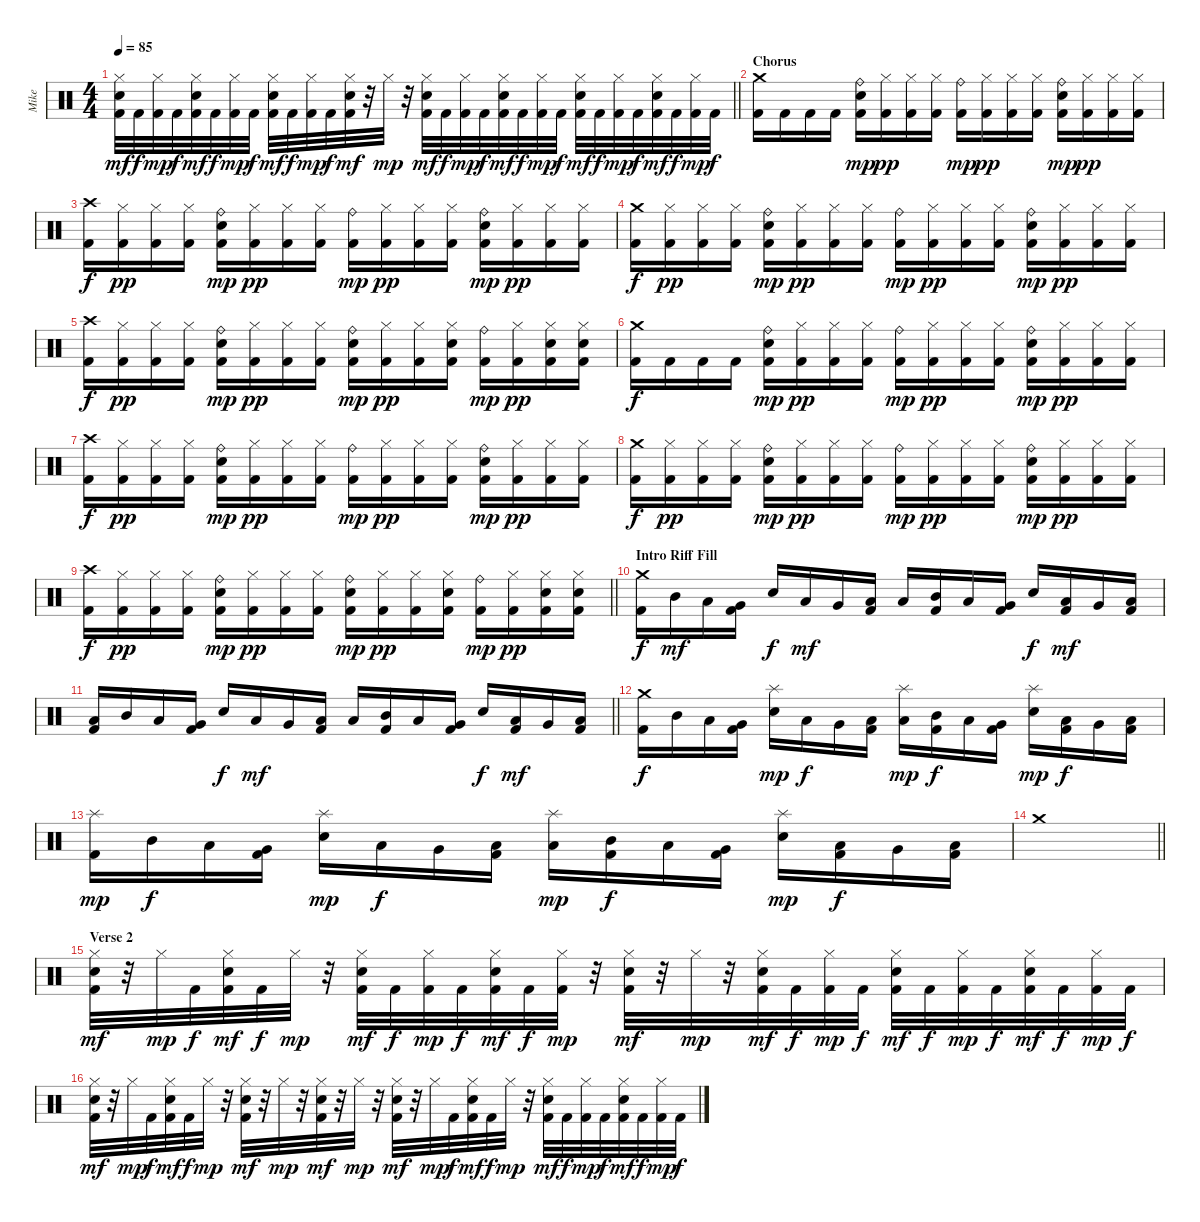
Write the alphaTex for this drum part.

\track ("Mike" "Mike") {instrument percussion}
\staff {score}
\articulation defaults
\ts (4 4)
\tempo 85
\clef neutral
\barLineRight lightlight
\ks c
("Hi-Hat (closed)" "Snare (hit) 2" "Kick (hit) 2").32{dy mf} "Kick (hit) 2".32{dy f} ("Hi-Hat (closed)" "Kick (hit) 2").32{dy mp} "Kick (hit) 2".32{dy f} ("Hi-Hat (closed)" "Snare (hit) 2" "Kick (hit) 2").32{dy mf} "Kick (hit) 2".32{dy f} ("Hi-Hat (closed)" "Kick (hit) 2").32{dy mp} "Kick (hit) 2".32{dy f} ("Hi-Hat (closed)" "Snare (hit) 2" "Kick (hit) 2").32{dy mf} "Kick (hit) 2".32{dy f} ("Hi-Hat (closed)" "Kick (hit) 2").32{dy mp} "Kick (hit) 2".32{dy f} ("Hi-Hat (closed)" "Snare (hit) 2" "Kick (hit) 2").32{dy mf} r.32 "Hi-Hat (closed)".32{dy mp} r.32 ("Hi-Hat (closed)" "Snare (hit) 2" "Kick (hit) 2").32{dy mf} "Kick (hit) 2".32{dy f} ("Hi-Hat (closed)" "Kick (hit) 2").32{dy mp} "Kick (hit) 2".32{dy f} ("Hi-Hat (closed)" "Snare (hit) 2" "Kick (hit) 2").32{dy mf} "Kick (hit) 2".32{dy f} ("Hi-Hat (closed)" "Kick (hit) 2").32{dy mp} "Kick (hit) 2".32{dy f} ("Hi-Hat (closed)" "Snare (hit) 2" "Kick (hit) 2").32{dy mf} "Kick (hit) 2".32{dy f} ("Hi-Hat (closed)" "Kick (hit) 2").32{dy mp} "Kick (hit) 2".32{dy f} ("Hi-Hat (closed)" "Snare (hit) 2" "Kick (hit) 2").32{dy mf} "Kick (hit) 2".32{dy f} ("Hi-Hat (closed)" "Kick (hit) 2").32{dy mp} "Kick (hit) 2".32{dy f} |
\section ("" "Chorus")
("Crash medium (hit)" "Kick (hit) 2").16 "Kick (hit) 2".16 "Kick (hit) 2".16 "Kick (hit) 2".16 ("Ride (bell)" "Snare (hit) 2" "Kick (hit) 2").16{dy mp} ("Hi-Hat (closed)" "Kick (hit) 2").16{dy pp} ("Hi-Hat (closed)" "Kick (hit) 2").16 ("Hi-Hat (closed)" "Kick (hit) 2").16 ("Ride (bell)" "Kick (hit) 2").16{dy mp} ("Hi-Hat (closed)" "Kick (hit) 2").16{dy pp} ("Hi-Hat (closed)" "Kick (hit) 2").16 ("Hi-Hat (closed)" "Kick (hit) 2").16 ("Ride (bell)" "Snare (hit) 2" "Kick (hit) 2").16{dy mp} ("Hi-Hat (closed)" "Kick (hit) 2").16{dy pp} ("Hi-Hat (closed)" "Kick (hit) 2").16 ("Hi-Hat (closed)" "Kick (hit) 2").16 |
("Crash high (hit)" "Kick (hit) 2").16{dy f} ("Hi-Hat (closed)" "Kick (hit) 2").16{dy pp} ("Hi-Hat (closed)" "Kick (hit) 2").16 ("Hi-Hat (closed)" "Kick (hit) 2").16 ("Ride (bell)" "Snare (hit) 2" "Kick (hit) 2").16{dy mp} ("Hi-Hat (closed)" "Kick (hit) 2").16{dy pp} ("Hi-Hat (closed)" "Kick (hit) 2").16 ("Hi-Hat (closed)" "Kick (hit) 2").16 ("Ride (bell)" "Kick (hit) 2").16{dy mp} ("Hi-Hat (closed)" "Kick (hit) 2").16{dy pp} ("Hi-Hat (closed)" "Kick (hit) 2").16 ("Hi-Hat (closed)" "Kick (hit) 2").16 ("Ride (bell)" "Snare (hit) 2" "Kick (hit) 2").16{dy mp} ("Hi-Hat (closed)" "Kick (hit) 2").16{dy pp} ("Hi-Hat (closed)" "Kick (hit) 2").16 ("Hi-Hat (closed)" "Kick (hit) 2").16 |
("Crash medium (hit)" "Kick (hit) 2").16{dy f} ("Hi-Hat (closed)" "Kick (hit) 2").16{dy pp} ("Hi-Hat (closed)" "Kick (hit) 2").16 ("Hi-Hat (closed)" "Kick (hit) 2").16 ("Ride (bell)" "Snare (hit) 2" "Kick (hit) 2").16{dy mp} ("Hi-Hat (closed)" "Kick (hit) 2").16{dy pp} ("Hi-Hat (closed)" "Kick (hit) 2").16 ("Hi-Hat (closed)" "Kick (hit) 2").16 ("Ride (bell)" "Kick (hit) 2").16{dy mp} ("Hi-Hat (closed)" "Kick (hit) 2").16{dy pp} ("Hi-Hat (closed)" "Kick (hit) 2").16 ("Hi-Hat (closed)" "Kick (hit) 2").16 ("Ride (bell)" "Snare (hit) 2" "Kick (hit) 2").16{dy mp} ("Hi-Hat (closed)" "Kick (hit) 2").16{dy pp} ("Hi-Hat (closed)" "Kick (hit) 2").16 ("Hi-Hat (closed)" "Kick (hit) 2").16 |
("Crash high (hit)" "Kick (hit) 2").16{dy f} ("Hi-Hat (closed)" "Kick (hit) 2").16{dy pp} ("Hi-Hat (closed)" "Kick (hit) 2").16 ("Hi-Hat (closed)" "Kick (hit) 2").16 ("Ride (bell)" "Snare (hit) 2" "Kick (hit) 2").16{dy mp} ("Hi-Hat (closed)" "Kick (hit) 2").16{dy pp} ("Hi-Hat (closed)" "Kick (hit) 2").16 ("Hi-Hat (closed)" "Kick (hit) 2").16 ("Ride (bell)" "Snare (hit) 2" "Kick (hit) 2").16{dy mp} ("Hi-Hat (closed)" "Kick (hit) 2").16{dy pp} ("Hi-Hat (closed)" "Kick (hit) 2").16 ("Hi-Hat (closed)" "Snare (hit) 2" "Kick (hit) 2").16 ("Ride (bell)" "Kick (hit) 2").16{dy mp} ("Hi-Hat (closed)" "Kick (hit) 2").16{dy pp} ("Hi-Hat (closed)" "Snare (hit) 2" "Kick (hit) 2").16 ("Hi-Hat (closed)" "Snare (hit) 2" "Kick (hit) 2").16 |
("Crash medium (hit)" "Kick (hit) 2").16{dy f} "Kick (hit) 2".16 "Kick (hit) 2".16 "Kick (hit) 2".16 ("Ride (bell)" "Snare (hit) 2" "Kick (hit) 2").16{dy mp} ("Hi-Hat (closed)" "Kick (hit) 2").16{dy pp} ("Hi-Hat (closed)" "Kick (hit) 2").16 ("Hi-Hat (closed)" "Kick (hit) 2").16 ("Ride (bell)" "Kick (hit) 2").16{dy mp} ("Hi-Hat (closed)" "Kick (hit) 2").16{dy pp} ("Hi-Hat (closed)" "Kick (hit) 2").16 ("Hi-Hat (closed)" "Kick (hit) 2").16 ("Ride (bell)" "Snare (hit) 2" "Kick (hit) 2").16{dy mp} ("Hi-Hat (closed)" "Kick (hit) 2").16{dy pp} ("Hi-Hat (closed)" "Kick (hit) 2").16 ("Hi-Hat (closed)" "Kick (hit) 2").16 |
("Crash high (hit)" "Kick (hit) 2").16{dy f} ("Hi-Hat (closed)" "Kick (hit) 2").16{dy pp} ("Hi-Hat (closed)" "Kick (hit) 2").16 ("Hi-Hat (closed)" "Kick (hit) 2").16 ("Ride (bell)" "Snare (hit) 2" "Kick (hit) 2").16{dy mp} ("Hi-Hat (closed)" "Kick (hit) 2").16{dy pp} ("Hi-Hat (closed)" "Kick (hit) 2").16 ("Hi-Hat (closed)" "Kick (hit) 2").16 ("Ride (bell)" "Kick (hit) 2").16{dy mp} ("Hi-Hat (closed)" "Kick (hit) 2").16{dy pp} ("Hi-Hat (closed)" "Kick (hit) 2").16 ("Hi-Hat (closed)" "Kick (hit) 2").16 ("Ride (bell)" "Snare (hit) 2" "Kick (hit) 2").16{dy mp} ("Hi-Hat (closed)" "Kick (hit) 2").16{dy pp} ("Hi-Hat (closed)" "Kick (hit) 2").16 ("Hi-Hat (closed)" "Kick (hit) 2").16 |
("Crash medium (hit)" "Kick (hit) 2").16{dy f} ("Hi-Hat (closed)" "Kick (hit) 2").16{dy pp} ("Hi-Hat (closed)" "Kick (hit) 2").16 ("Hi-Hat (closed)" "Kick (hit) 2").16 ("Ride (bell)" "Snare (hit) 2" "Kick (hit) 2").16{dy mp} ("Hi-Hat (closed)" "Kick (hit) 2").16{dy pp} ("Hi-Hat (closed)" "Kick (hit) 2").16 ("Hi-Hat (closed)" "Kick (hit) 2").16 ("Ride (bell)" "Kick (hit) 2").16{dy mp} ("Hi-Hat (closed)" "Kick (hit) 2").16{dy pp} ("Hi-Hat (closed)" "Kick (hit) 2").16 ("Hi-Hat (closed)" "Kick (hit) 2").16 ("Ride (bell)" "Snare (hit) 2" "Kick (hit) 2").16{dy mp} ("Hi-Hat (closed)" "Kick (hit) 2").16{dy pp} ("Hi-Hat (closed)" "Kick (hit) 2").16 ("Hi-Hat (closed)" "Kick (hit) 2").16 |
\barLineRight lightlight
("Crash high (hit)" "Kick (hit) 2").16{dy f} ("Hi-Hat (closed)" "Kick (hit) 2").16{dy pp} ("Hi-Hat (closed)" "Kick (hit) 2").16 ("Hi-Hat (closed)" "Kick (hit) 2").16 ("Ride (bell)" "Snare (hit) 2" "Kick (hit) 2").16{dy mp} ("Hi-Hat (closed)" "Kick (hit) 2").16{dy pp} ("Hi-Hat (closed)" "Kick (hit) 2").16 ("Hi-Hat (closed)" "Kick (hit) 2").16 ("Ride (bell)" "Snare (hit) 2" "Kick (hit) 2").16{dy mp} ("Hi-Hat (closed)" "Kick (hit) 2").16{dy pp} ("Hi-Hat (closed)" "Kick (hit) 2").16 ("Hi-Hat (closed)" "Snare (hit) 2" "Kick (hit) 2").16 ("Ride (bell)" "Kick (hit) 2").16{dy mp} ("Hi-Hat (closed)" "Kick (hit) 2").16{dy pp} ("Hi-Hat (closed)" "Snare (hit) 2" "Kick (hit) 2").16 ("Hi-Hat (closed)" "Snare (hit) 2" "Kick (hit) 2").16 |
\section ("" "Intro Riff Fill")
("Crash medium (hit)" "Kick (hit) 2").16{dy f} "Mid Tom (hit)".16{dy mf} "Low Tom (hit)".16 ("Very Low Tom (hit)" "Kick (hit) 2").16 "Snare (hit) 2".16{dy f} "Low Tom (hit)".16{dy mf} "Very Low Tom (hit)".16 ("Low Floor Tom (hit)" "Kick (hit) 2").16 "Low Tom (hit)".16 ("Mid Tom (hit)" "Kick (hit) 2").16 "Low Tom (hit)".16 ("Very Low Tom (hit)" "Kick (hit) 2").16 "Snare (hit) 2".16{dy f} ("Low Tom (hit)" "Kick (hit) 2").16{dy mf} "Very Low Tom (hit)".16 ("Low Floor Tom (hit)" "Kick (hit) 2").16 |
\barLineRight lightlight
("Low Tom (hit)" "Kick (hit) 2").16 "Mid Tom (hit)".16 "Low Tom (hit)".16 ("Very Low Tom (hit)" "Kick (hit) 2").16 "Snare (hit) 2".16{dy f} "Low Tom (hit)".16{dy mf} "Very Low Tom (hit)".16 ("Low Floor Tom (hit)" "Kick (hit) 2").16 "Low Tom (hit)".16 ("Mid Tom (hit)" "Kick (hit) 2").16 "Low Tom (hit)".16 ("Very Low Tom (hit)" "Kick (hit) 2").16 "Snare (hit) 2".16{dy f} ("Low Tom (hit)" "Kick (hit) 2").16{dy mf} "Very Low Tom (hit)".16 ("Low Floor Tom (hit)" "Kick (hit) 2").16 |
("Crash medium (hit)" "Kick (hit) 2").16{dy f} "Mid Tom (hit)".16 "Low Tom (hit)".16 ("Very Low Tom (hit)" "Kick (hit) 2").16 ("Splash (hit)" "Snare (hit) 2").16{dy mp} "Low Tom (hit)".16{dy f} "Very Low Tom (hit)".16 ("Low Floor Tom (hit)" "Kick (hit) 2").16 ("Splash (hit)" "Low Tom (hit)").16{dy mp} ("Mid Tom (hit)" "Kick (hit) 2").16{dy f} "Low Tom (hit)".16 ("Very Low Tom (hit)" "Kick (hit) 2").16 ("Splash (hit)" "Snare (hit) 2").16{dy mp} ("Low Tom (hit)" "Kick (hit) 2").16{dy f} "Very Low Tom (hit)".16 ("Low Floor Tom (hit)" "Kick (hit) 2").16 |
("Splash (hit)" "Kick (hit) 2").16{dy mp} "Mid Tom (hit)".16{dy f} "Low Tom (hit)".16 ("Very Low Tom (hit)" "Kick (hit) 2").16 ("Splash (hit)" "Snare (hit) 2").16{dy mp} "Low Tom (hit)".16{dy f} "Very Low Tom (hit)".16 ("Low Floor Tom (hit)" "Kick (hit) 2").16 ("Splash (hit)" "Low Tom (hit)").16{dy mp} ("Mid Tom (hit)" "Kick (hit) 2").16{dy f} "Low Tom (hit)".16 ("Very Low Tom (hit)" "Kick (hit) 2").16 ("Splash (hit)" "Snare (hit) 2").16{dy mp} ("Low Tom (hit)" "Kick (hit) 2").16{dy f} "Very Low Tom (hit)".16 ("Low Floor Tom (hit)" "Kick (hit) 2").16 |
\barLineRight lightlight "Crash medium (hit)".1
|
\section ("" "Verse 2")
("Hi-Hat (closed)" "Snare (hit) 2" "Kick (hit) 2").32{dy mf} r.32 "Hi-Hat (closed)".32{dy mp} "Kick (hit) 2".32{dy f} ("Hi-Hat (closed)" "Snare (hit) 2" "Kick (hit) 2").32{dy mf} "Kick (hit) 2".32{dy f} "Hi-Hat (closed)".32{dy mp} r.32 ("Hi-Hat (closed)" "Snare (hit) 2" "Kick (hit) 2").32{dy mf} "Kick (hit) 2".32{dy f} ("Hi-Hat (closed)" "Kick (hit) 2").32{dy mp} "Kick (hit) 2".32{dy f} ("Hi-Hat (closed)" "Snare (hit) 2" "Kick (hit) 2").32{dy mf} "Kick (hit) 2".32{dy f} ("Hi-Hat (closed)" "Kick (hit) 2").32{dy mp} r.32 ("Hi-Hat (closed)" "Snare (hit) 2" "Kick (hit) 2").32{dy mf} r.32 "Hi-Hat (closed)".32{dy mp} r.32 ("Hi-Hat (closed)" "Snare (hit) 2" "Kick (hit) 2").32{dy mf} "Kick (hit) 2".32{dy f} ("Hi-Hat (closed)" "Kick (hit) 2").32{dy mp} "Kick (hit) 2".32{dy f} ("Hi-Hat (closed)" "Snare (hit) 2" "Kick (hit) 2").32{dy mf} "Kick (hit) 2".32{dy f} ("Hi-Hat (closed)" "Kick (hit) 2").32{dy mp} "Kick (hit) 2".32{dy f} ("Hi-Hat (closed)" "Snare (hit) 2" "Kick (hit) 2").32{dy mf} "Kick (hit) 2".32{dy f} ("Hi-Hat (closed)" "Kick (hit) 2").32{dy mp} "Kick (hit) 2".32{dy f} |
("Hi-Hat (closed)" "Snare (hit) 2" "Kick (hit) 2").32{dy mf} r.32 "Hi-Hat (closed)".32{dy mp} "Kick (hit) 2".32{dy f} ("Hi-Hat (closed)" "Snare (hit) 2" "Kick (hit) 2").32{dy mf} "Kick (hit) 2".32{dy f} "Hi-Hat (closed)".32{dy mp} r.32 ("Hi-Hat (closed)" "Snare (hit) 2" "Kick (hit) 2").32{dy mf} r.32 "Hi-Hat (closed)".32{dy mp} r.32 ("Hi-Hat (closed)" "Snare (hit) 2" "Kick (hit) 2").32{dy mf} r.32 "Hi-Hat (closed)".32{dy mp} r.32 ("Hi-Hat (closed)" "Snare (hit) 2" "Kick (hit) 2").32{dy mf} r.32 "Hi-Hat (closed)".32{dy mp} "Kick (hit) 2".32{dy f} ("Hi-Hat (closed)" "Snare (hit) 2" "Kick (hit) 2").32{dy mf} "Kick (hit) 2".32{dy f} "Hi-Hat (closed)".32{dy mp} r.32 ("Hi-Hat (closed)" "Snare (hit) 2" "Kick (hit) 2").32{dy mf} "Kick (hit) 2".32{dy f} ("Hi-Hat (closed)" "Kick (hit) 2").32{dy mp} "Kick (hit) 2".32{dy f} ("Hi-Hat (closed)" "Snare (hit) 2" "Kick (hit) 2").32{dy mf} "Kick (hit) 2".32{dy f} ("Hi-Hat (closed)" "Kick (hit) 2").32{dy mp} "Kick (hit) 2".32{dy f}
